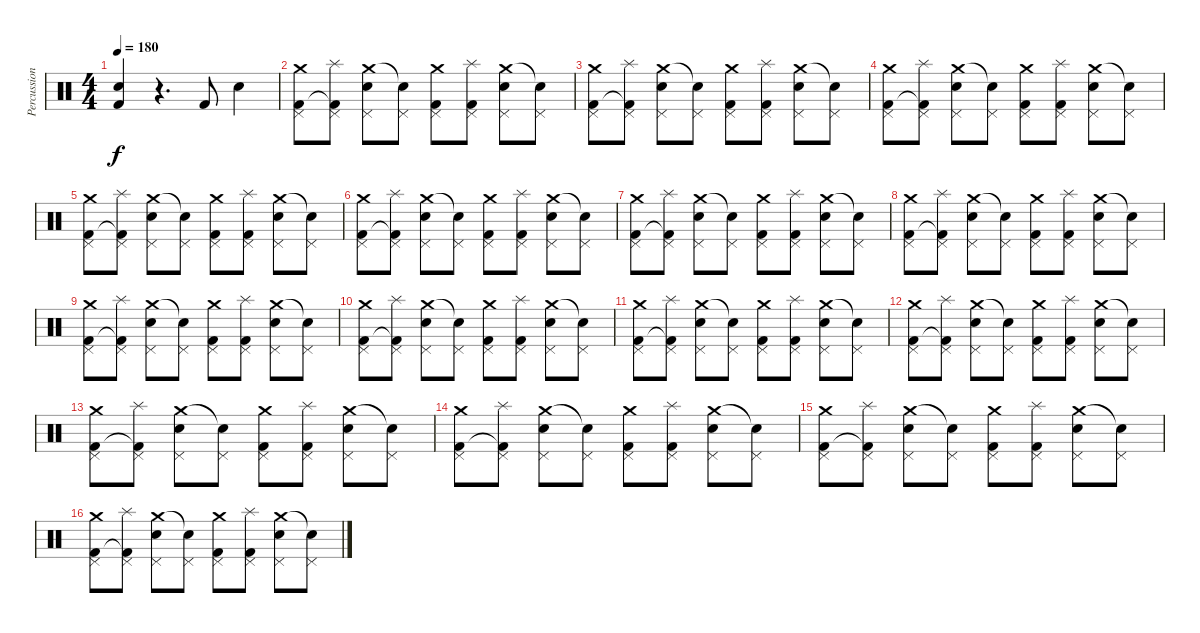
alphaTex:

\track ("Percussion" "Percussion") {instrument percussion}
\staff
\articulation defaults
\ts (4 4)
\tempo 180
\clef neutral
\ks c
("Snare (hit) 2" "Kick (hit) 2").4{dy f} r.4{d} "Kick (hit) 2".8 "Snare (hit) 2".4 |
("Pedal Hi-Hat (hit)" "Crash medium (hit)" "Kick (hit) 2").8 ("Pedal Hi-Hat (hit)" "Splash (hit)" "Kick (hit) 2"{t}).8 ("Pedal Hi-Hat (hit)" "Crash medium (hit)" "Snare (hit) 2").8 ("Pedal Hi-Hat (hit)" "Snare (hit) 2"{t}).8 ("Pedal Hi-Hat (hit)" "Crash medium (hit)" "Kick (hit) 2").8 ("Pedal Hi-Hat (hit)" "Splash (hit)" "Kick (hit) 2").8 ("Pedal Hi-Hat (hit)" "Crash medium (hit)" "Snare (hit) 2").8 ("Pedal Hi-Hat (hit)" "Snare (hit) 2"{t}).8 |
("Pedal Hi-Hat (hit)" "Crash medium (hit)" "Kick (hit) 2").8 ("Pedal Hi-Hat (hit)" "Splash (hit)" "Kick (hit) 2"{t}).8 ("Pedal Hi-Hat (hit)" "Crash medium (hit)" "Snare (hit) 2").8 ("Pedal Hi-Hat (hit)" "Snare (hit) 2"{t}).8 ("Pedal Hi-Hat (hit)" "Crash medium (hit)" "Kick (hit) 2").8 ("Pedal Hi-Hat (hit)" "Splash (hit)" "Kick (hit) 2").8 ("Pedal Hi-Hat (hit)" "Crash medium (hit)" "Snare (hit) 2").8 ("Pedal Hi-Hat (hit)" "Snare (hit) 2"{t}).8 |
("Pedal Hi-Hat (hit)" "Crash medium (hit)" "Kick (hit) 2").8 ("Pedal Hi-Hat (hit)" "Splash (hit)" "Kick (hit) 2"{t}).8 ("Pedal Hi-Hat (hit)" "Crash medium (hit)" "Snare (hit) 2").8 ("Pedal Hi-Hat (hit)" "Snare (hit) 2"{t}).8 ("Pedal Hi-Hat (hit)" "Crash medium (hit)" "Kick (hit) 2").8 ("Pedal Hi-Hat (hit)" "Splash (hit)" "Kick (hit) 2").8 ("Pedal Hi-Hat (hit)" "Crash medium (hit)" "Snare (hit) 2").8 ("Pedal Hi-Hat (hit)" "Snare (hit) 2"{t}).8 |
("Pedal Hi-Hat (hit)" "Crash medium (hit)" "Kick (hit) 2").8 ("Pedal Hi-Hat (hit)" "Splash (hit)" "Kick (hit) 2"{t}).8 ("Pedal Hi-Hat (hit)" "Crash medium (hit)" "Snare (hit) 2").8 ("Pedal Hi-Hat (hit)" "Snare (hit) 2"{t}).8 ("Pedal Hi-Hat (hit)" "Crash medium (hit)" "Kick (hit) 2").8 ("Pedal Hi-Hat (hit)" "Splash (hit)" "Kick (hit) 2").8 ("Pedal Hi-Hat (hit)" "Crash medium (hit)" "Snare (hit) 2").8 ("Pedal Hi-Hat (hit)" "Snare (hit) 2"{t}).8 |
("Pedal Hi-Hat (hit)" "Crash medium (hit)" "Kick (hit) 2").8 ("Pedal Hi-Hat (hit)" "Splash (hit)" "Kick (hit) 2"{t}).8 ("Pedal Hi-Hat (hit)" "Crash medium (hit)" "Snare (hit) 2").8 ("Pedal Hi-Hat (hit)" "Snare (hit) 2"{t}).8 ("Pedal Hi-Hat (hit)" "Crash medium (hit)" "Kick (hit) 2").8 ("Pedal Hi-Hat (hit)" "Splash (hit)" "Kick (hit) 2").8 ("Pedal Hi-Hat (hit)" "Crash medium (hit)" "Snare (hit) 2").8 ("Pedal Hi-Hat (hit)" "Snare (hit) 2"{t}).8 |
("Pedal Hi-Hat (hit)" "Crash medium (hit)" "Kick (hit) 2").8 ("Pedal Hi-Hat (hit)" "Splash (hit)" "Kick (hit) 2"{t}).8 ("Pedal Hi-Hat (hit)" "Crash medium (hit)" "Snare (hit) 2").8 ("Pedal Hi-Hat (hit)" "Snare (hit) 2"{t}).8 ("Pedal Hi-Hat (hit)" "Crash medium (hit)" "Kick (hit) 2").8 ("Pedal Hi-Hat (hit)" "Splash (hit)" "Kick (hit) 2").8 ("Pedal Hi-Hat (hit)" "Crash medium (hit)" "Snare (hit) 2").8 ("Pedal Hi-Hat (hit)" "Snare (hit) 2"{t}).8 |
("Pedal Hi-Hat (hit)" "Crash medium (hit)" "Kick (hit) 2").8 ("Pedal Hi-Hat (hit)" "Splash (hit)" "Kick (hit) 2"{t}).8 ("Pedal Hi-Hat (hit)" "Crash medium (hit)" "Snare (hit) 2").8 ("Pedal Hi-Hat (hit)" "Snare (hit) 2"{t}).8 ("Pedal Hi-Hat (hit)" "Crash medium (hit)" "Kick (hit) 2").8 ("Pedal Hi-Hat (hit)" "Splash (hit)" "Kick (hit) 2").8 ("Pedal Hi-Hat (hit)" "Crash medium (hit)" "Snare (hit) 2").8 ("Pedal Hi-Hat (hit)" "Snare (hit) 2"{t}).8 |
("Pedal Hi-Hat (hit)" "Crash medium (hit)" "Kick (hit) 2").8 ("Pedal Hi-Hat (hit)" "Splash (hit)" "Kick (hit) 2"{t}).8 ("Pedal Hi-Hat (hit)" "Crash medium (hit)" "Snare (hit) 2").8 ("Pedal Hi-Hat (hit)" "Snare (hit) 2"{t}).8 ("Pedal Hi-Hat (hit)" "Crash medium (hit)" "Kick (hit) 2").8 ("Pedal Hi-Hat (hit)" "Splash (hit)" "Kick (hit) 2").8 ("Pedal Hi-Hat (hit)" "Crash medium (hit)" "Snare (hit) 2").8 ("Pedal Hi-Hat (hit)" "Snare (hit) 2"{t}).8 |
("Pedal Hi-Hat (hit)" "Crash medium (hit)" "Kick (hit) 2").8 ("Pedal Hi-Hat (hit)" "Splash (hit)" "Kick (hit) 2"{t}).8 ("Pedal Hi-Hat (hit)" "Crash medium (hit)" "Snare (hit) 2").8 ("Pedal Hi-Hat (hit)" "Snare (hit) 2"{t}).8 ("Pedal Hi-Hat (hit)" "Crash medium (hit)" "Kick (hit) 2").8 ("Pedal Hi-Hat (hit)" "Splash (hit)" "Kick (hit) 2").8 ("Pedal Hi-Hat (hit)" "Crash medium (hit)" "Snare (hit) 2").8 ("Pedal Hi-Hat (hit)" "Snare (hit) 2"{t}).8 |
("Pedal Hi-Hat (hit)" "Crash medium (hit)" "Kick (hit) 2").8 ("Pedal Hi-Hat (hit)" "Splash (hit)" "Kick (hit) 2"{t}).8 ("Pedal Hi-Hat (hit)" "Crash medium (hit)" "Snare (hit) 2").8 ("Pedal Hi-Hat (hit)" "Snare (hit) 2"{t}).8 ("Pedal Hi-Hat (hit)" "Crash medium (hit)" "Kick (hit) 2").8 ("Pedal Hi-Hat (hit)" "Splash (hit)" "Kick (hit) 2").8 ("Pedal Hi-Hat (hit)" "Crash medium (hit)" "Snare (hit) 2").8 ("Pedal Hi-Hat (hit)" "Snare (hit) 2"{t}).8 |
("Pedal Hi-Hat (hit)" "Crash medium (hit)" "Kick (hit) 2").8 ("Pedal Hi-Hat (hit)" "Splash (hit)" "Kick (hit) 2"{t}).8 ("Pedal Hi-Hat (hit)" "Crash medium (hit)" "Snare (hit) 2").8 ("Pedal Hi-Hat (hit)" "Snare (hit) 2"{t}).8 ("Pedal Hi-Hat (hit)" "Crash medium (hit)" "Kick (hit) 2").8 ("Pedal Hi-Hat (hit)" "Splash (hit)" "Kick (hit) 2").8 ("Pedal Hi-Hat (hit)" "Crash medium (hit)" "Snare (hit) 2").8 ("Pedal Hi-Hat (hit)" "Snare (hit) 2"{t}).8 |
("Pedal Hi-Hat (hit)" "Crash medium (hit)" "Kick (hit) 2").8 ("Pedal Hi-Hat (hit)" "Splash (hit)" "Kick (hit) 2"{t}).8 ("Pedal Hi-Hat (hit)" "Crash medium (hit)" "Snare (hit) 2").8 ("Pedal Hi-Hat (hit)" "Snare (hit) 2"{t}).8 ("Pedal Hi-Hat (hit)" "Crash medium (hit)" "Kick (hit) 2").8 ("Pedal Hi-Hat (hit)" "Splash (hit)" "Kick (hit) 2").8 ("Pedal Hi-Hat (hit)" "Crash medium (hit)" "Snare (hit) 2").8 ("Pedal Hi-Hat (hit)" "Snare (hit) 2"{t}).8 |
("Pedal Hi-Hat (hit)" "Crash medium (hit)" "Kick (hit) 2").8 ("Pedal Hi-Hat (hit)" "Splash (hit)" "Kick (hit) 2"{t}).8 ("Pedal Hi-Hat (hit)" "Crash medium (hit)" "Snare (hit) 2").8 ("Pedal Hi-Hat (hit)" "Snare (hit) 2"{t}).8 ("Pedal Hi-Hat (hit)" "Crash medium (hit)" "Kick (hit) 2").8 ("Pedal Hi-Hat (hit)" "Splash (hit)" "Kick (hit) 2").8 ("Pedal Hi-Hat (hit)" "Crash medium (hit)" "Snare (hit) 2").8 ("Pedal Hi-Hat (hit)" "Snare (hit) 2"{t}).8 |
("Pedal Hi-Hat (hit)" "Crash medium (hit)" "Kick (hit) 2").8 ("Pedal Hi-Hat (hit)" "Splash (hit)" "Kick (hit) 2"{t}).8 ("Pedal Hi-Hat (hit)" "Crash medium (hit)" "Snare (hit) 2").8 ("Pedal Hi-Hat (hit)" "Snare (hit) 2"{t}).8 ("Pedal Hi-Hat (hit)" "Crash medium (hit)" "Kick (hit) 2").8 ("Pedal Hi-Hat (hit)" "Splash (hit)" "Kick (hit) 2").8 ("Pedal Hi-Hat (hit)" "Crash medium (hit)" "Snare (hit) 2").8 ("Pedal Hi-Hat (hit)" "Snare (hit) 2"{t}).8 |
("Pedal Hi-Hat (hit)" "Crash medium (hit)" "Kick (hit) 2").8 ("Pedal Hi-Hat (hit)" "Splash (hit)" "Kick (hit) 2"{t}).8 ("Pedal Hi-Hat (hit)" "Crash medium (hit)" "Snare (hit) 2").8 ("Pedal Hi-Hat (hit)" "Snare (hit) 2"{t}).8 ("Pedal Hi-Hat (hit)" "Crash medium (hit)" "Kick (hit) 2").8 ("Pedal Hi-Hat (hit)" "Splash (hit)" "Kick (hit) 2").8 ("Pedal Hi-Hat (hit)" "Crash medium (hit)" "Snare (hit) 2").8 ("Pedal Hi-Hat (hit)" "Snare (hit) 2"{t}).8
